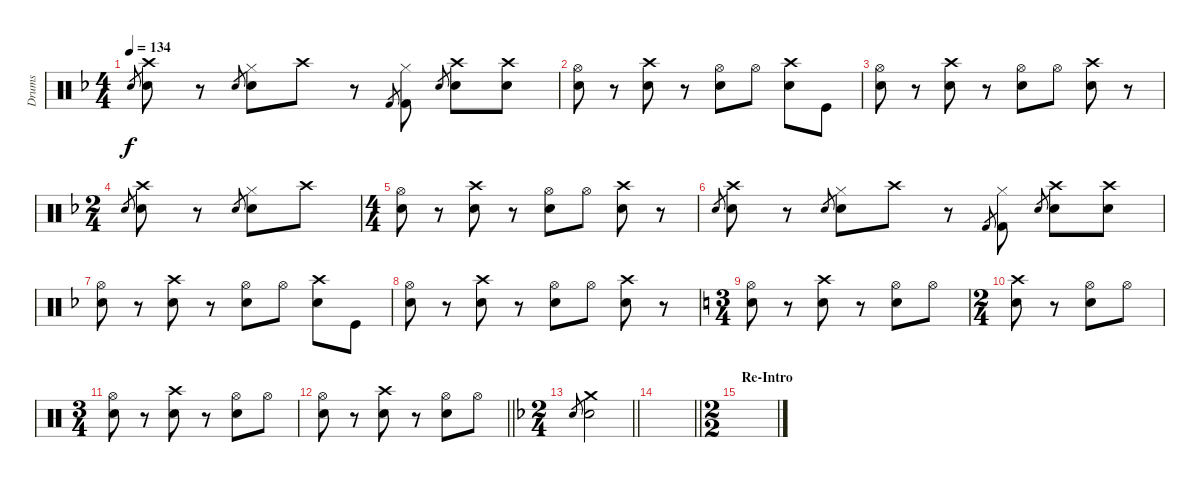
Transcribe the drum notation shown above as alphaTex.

\track ("Drums" "Drums") {instrument percussion}
\staff {score}
\articulation defaults
\ts (4 4)
\tempo 134
\clef neutral
\ks f "Electric Snare (hit)".8{gr dy f}
("Electric Snare (hit)" "Crash high (hit)").8 r.8 "Electric Snare (hit)".8{gr} ("Electric Snare (hit)" "Hi-Hat (closed)").8 "Crash high (hit)".8 r.8 "Kick (hit) 2".8{gr} ("Kick (hit) 2" "Hi-Hat (closed)").8 "Electric Snare (hit)".8{gr} ("Electric Snare (hit)" "Crash high (hit)").8 ("Electric Snare (hit)" "Crash high (hit)").8 |
("Snare (hit) 2" "Hi-Hat (open)").8 r.8 ("Electric Snare (hit)" "Crash high (hit)").8 r.8 ("Snare (hit) 2" "Hi-Hat (open)").8 "Hi-Hat (open)".8 ("Electric Snare (hit)" "Crash high (hit)").8 "Kick (hit)".8 |
("Snare (hit) 2" "Hi-Hat (open)").8 r.8 ("Electric Snare (hit)" "Crash high (hit)").8 r.8 ("Snare (hit) 2" "Hi-Hat (open)").8 "Hi-Hat (open)".8 ("Electric Snare (hit)" "Crash high (hit)").8 r.8 |
\ts (2 4)
"Electric Snare (hit)".8{gr} ("Electric Snare (hit)" "Crash high (hit)").8 r.8 "Electric Snare (hit)".8{gr} ("Electric Snare (hit)" "Hi-Hat (closed)").8 "Crash high (hit)".8 |
\ts (4 4)
("Snare (hit) 2" "Hi-Hat (open)").8 r.8 ("Electric Snare (hit)" "Crash high (hit)").8 r.8 ("Snare (hit) 2" "Hi-Hat (open)").8 "Hi-Hat (open)".8 ("Electric Snare (hit)" "Crash high (hit)").8 r.8 |
"Electric Snare (hit)".8{gr} ("Electric Snare (hit)" "Crash high (hit)").8 r.8 "Electric Snare (hit)".8{gr} ("Electric Snare (hit)" "Hi-Hat (closed)").8 "Crash high (hit)".8 r.8 "Kick (hit) 2".8{gr} ("Kick (hit) 2" "Hi-Hat (closed)").8 "Electric Snare (hit)".8{gr} ("Electric Snare (hit)" "Crash high (hit)").8 ("Electric Snare (hit)" "Crash high (hit)").8 |
("Snare (hit) 2" "Hi-Hat (open)").8 r.8 ("Electric Snare (hit)" "Crash high (hit)").8 r.8 ("Snare (hit) 2" "Hi-Hat (open)").8 "Hi-Hat (open)".8 ("Electric Snare (hit)" "Crash high (hit)").8 "Kick (hit)".8 |
("Snare (hit) 2" "Hi-Hat (open)").8 r.8 ("Electric Snare (hit)" "Crash high (hit)").8 r.8 ("Snare (hit) 2" "Hi-Hat (open)").8 "Hi-Hat (open)".8 ("Electric Snare (hit)" "Crash high (hit)").8 r.8 |
\ts (3 4)
\ks c
("Snare (hit) 2" "Hi-Hat (open)").8 r.8 ("Electric Snare (hit)" "Crash high (hit)").8 r.8 ("Snare (hit) 2" "Hi-Hat (open)").8 "Hi-Hat (open)".8 |
\ts (2 4)
("Electric Snare (hit)" "Crash high (hit)").8 r.8 ("Snare (hit) 2" "Hi-Hat (open)").8 "Hi-Hat (open)".8 |
\ts (3 4)
("Snare (hit) 2" "Hi-Hat (open)").8 r.8 ("Electric Snare (hit)" "Crash high (hit)").8 r.8 ("Snare (hit) 2" "Hi-Hat (open)").8 "Hi-Hat (open)".8 |
\barLineRight lightlight
("Snare (hit) 2" "Hi-Hat (open)").8 r.8 ("Electric Snare (hit)" "Crash high (hit)").8 r.8 ("Snare (hit) 2" "Hi-Hat (open)").8 "Hi-Hat (open)".8 |
\ts (2 4)
\barLineRight lightlight
\ks f "Snare (hit) 2".8{gr}
("Snare (hit) 2" "Crash medium (hit)").2 |
\barLineRight lightlight
|
\ts (2 2)
\section ("" "Re-Intro")
